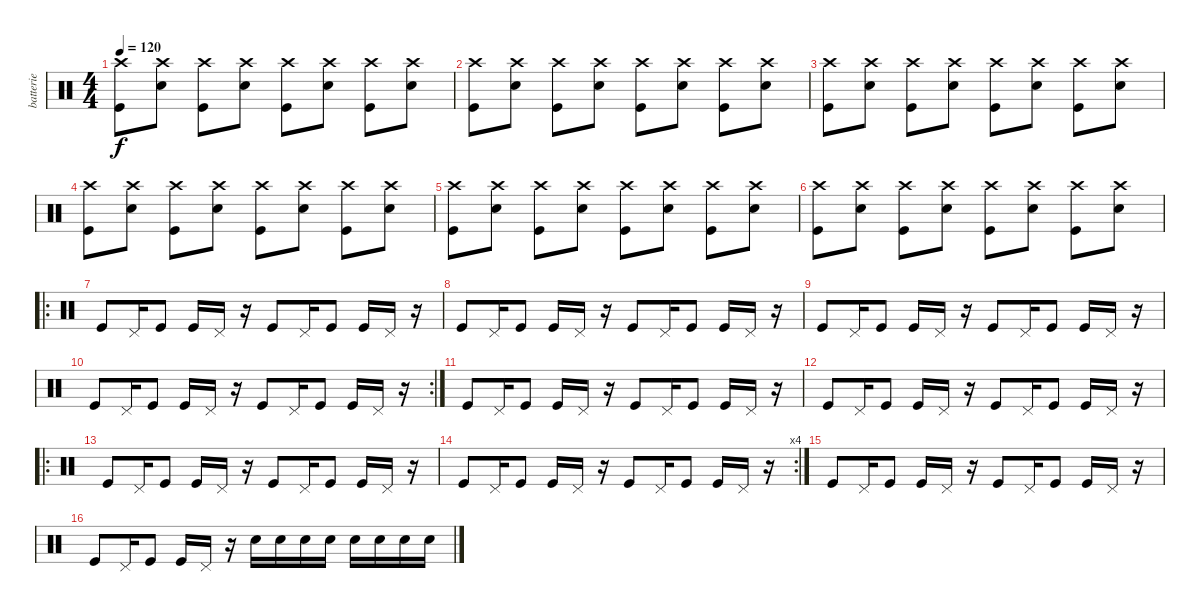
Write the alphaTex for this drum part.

\track ("batterie" "batterie") {instrument percussion}
\staff {score}
\articulation defaults
\ts (4 4)
\tempo 120
\clef neutral
\ks c
("Crash high (hit)" "Kick (hit)").8{dy f} ("Crash high (hit)" "Snare (hit) 2").8 ("Crash high (hit)" "Kick (hit)").8 ("Crash high (hit)" "Snare (hit) 2").8 ("Crash high (hit)" "Kick (hit)").8 ("Crash high (hit)" "Snare (hit) 2").8 ("Crash high (hit)" "Kick (hit)").8 ("Crash high (hit)" "Snare (hit) 2").8 |
("Crash high (hit)" "Kick (hit)").8 ("Crash high (hit)" "Snare (hit) 2").8 ("Crash high (hit)" "Kick (hit)").8 ("Crash high (hit)" "Snare (hit) 2").8 ("Crash high (hit)" "Kick (hit)").8 ("Crash high (hit)" "Snare (hit) 2").8 ("Crash high (hit)" "Kick (hit)").8 ("Crash high (hit)" "Snare (hit) 2").8 |
("Crash high (hit)" "Kick (hit)").8 ("Crash high (hit)" "Snare (hit) 2").8 ("Crash high (hit)" "Kick (hit)").8 ("Crash high (hit)" "Snare (hit) 2").8 ("Crash high (hit)" "Kick (hit)").8 ("Crash high (hit)" "Snare (hit) 2").8 ("Crash high (hit)" "Kick (hit)").8 ("Crash high (hit)" "Snare (hit) 2").8 |
("Crash high (hit)" "Kick (hit)").8 ("Crash high (hit)" "Snare (hit) 2").8 ("Crash high (hit)" "Kick (hit)").8 ("Crash high (hit)" "Snare (hit) 2").8 ("Crash high (hit)" "Kick (hit)").8 ("Crash high (hit)" "Snare (hit) 2").8 ("Crash high (hit)" "Kick (hit)").8 ("Crash high (hit)" "Snare (hit) 2").8 |
("Crash high (hit)" "Kick (hit)").8 ("Crash high (hit)" "Snare (hit) 2").8 ("Crash high (hit)" "Kick (hit)").8 ("Crash high (hit)" "Snare (hit) 2").8 ("Crash high (hit)" "Kick (hit)").8 ("Crash high (hit)" "Snare (hit) 2").8 ("Crash high (hit)" "Kick (hit)").8 ("Crash high (hit)" "Snare (hit) 2").8 |
("Crash high (hit)" "Kick (hit)").8 ("Crash high (hit)" "Snare (hit) 2").8 ("Crash high (hit)" "Kick (hit)").8 ("Crash high (hit)" "Snare (hit) 2").8 ("Crash high (hit)" "Kick (hit)").8 ("Crash high (hit)" "Snare (hit) 2").8 ("Crash high (hit)" "Kick (hit)").8 ("Crash high (hit)" "Snare (hit) 2").8 |
\ro "Kick (hit)".8 "Pedal Hi-Hat (hit)".16 "Kick (hit)".8 "Kick (hit)".16 "Pedal Hi-Hat (hit)".16
r.16 "Kick (hit)".8 "Pedal Hi-Hat (hit)".16 "Kick (hit)".8 "Kick (hit)".16 "Pedal Hi-Hat (hit)".16 r.16 |
"Kick (hit)".8 "Pedal Hi-Hat (hit)".16 "Kick (hit)".8 "Kick (hit)".16 "Pedal Hi-Hat (hit)".16 r.16 "Kick (hit)".8 "Pedal Hi-Hat (hit)".16 "Kick (hit)".8 "Kick (hit)".16 "Pedal Hi-Hat (hit)".16 r.16 |
"Kick (hit)".8 "Pedal Hi-Hat (hit)".16 "Kick (hit)".8 "Kick (hit)".16 "Pedal Hi-Hat (hit)".16 r.16 "Kick (hit)".8 "Pedal Hi-Hat (hit)".16 "Kick (hit)".8 "Kick (hit)".16 "Pedal Hi-Hat (hit)".16 r.16 |
\rc 2 "Kick (hit)".8 "Pedal Hi-Hat (hit)".16 "Kick (hit)".8 "Kick (hit)".16 "Pedal Hi-Hat (hit)".16
r.16 "Kick (hit)".8 "Pedal Hi-Hat (hit)".16 "Kick (hit)".8 "Kick (hit)".16 "Pedal Hi-Hat (hit)".16 r.16 |
"Kick (hit)".8 "Pedal Hi-Hat (hit)".16 "Kick (hit)".8 "Kick (hit)".16 "Pedal Hi-Hat (hit)".16 r.16 "Kick (hit)".8 "Pedal Hi-Hat (hit)".16 "Kick (hit)".8 "Kick (hit)".16 "Pedal Hi-Hat (hit)".16 r.16 |
"Kick (hit)".8 "Pedal Hi-Hat (hit)".16 "Kick (hit)".8 "Kick (hit)".16 "Pedal Hi-Hat (hit)".16 r.16 "Kick (hit)".8 "Pedal Hi-Hat (hit)".16 "Kick (hit)".8 "Kick (hit)".16 "Pedal Hi-Hat (hit)".16 r.16 |
\ro "Kick (hit)".8 "Pedal Hi-Hat (hit)".16 "Kick (hit)".8 "Kick (hit)".16 "Pedal Hi-Hat (hit)".16
r.16 "Kick (hit)".8 "Pedal Hi-Hat (hit)".16 "Kick (hit)".8 "Kick (hit)".16 "Pedal Hi-Hat (hit)".16 r.16 |
\rc 4 "Kick (hit)".8 "Pedal Hi-Hat (hit)".16 "Kick (hit)".8 "Kick (hit)".16 "Pedal Hi-Hat (hit)".16
r.16 "Kick (hit)".8 "Pedal Hi-Hat (hit)".16 "Kick (hit)".8 "Kick (hit)".16 "Pedal Hi-Hat (hit)".16 r.16 |
"Kick (hit)".8 "Pedal Hi-Hat (hit)".16 "Kick (hit)".8 "Kick (hit)".16 "Pedal Hi-Hat (hit)".16 r.16 "Kick (hit)".8 "Pedal Hi-Hat (hit)".16 "Kick (hit)".8 "Kick (hit)".16 "Pedal Hi-Hat (hit)".16 r.16 |
"Kick (hit)".8 "Pedal Hi-Hat (hit)".16 "Kick (hit)".8 "Kick (hit)".16 "Pedal Hi-Hat (hit)".16 r.16 "Snare (hit) 2".16 "Snare (hit) 2".16 "Snare (hit) 2".16 "Snare (hit) 2".16 "Snare (hit) 2".16 "Snare (hit) 2".16 "Snare (hit) 2".16 "Snare (hit) 2".16
